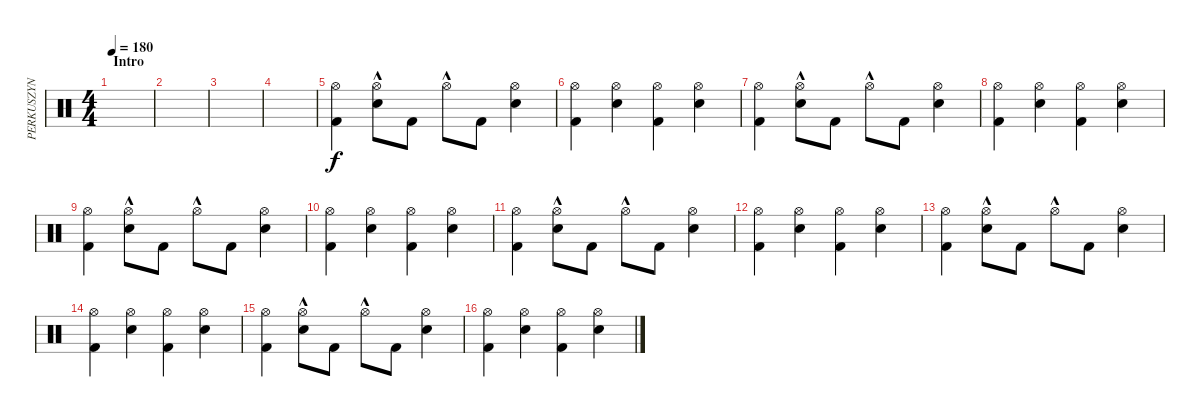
\track ("PERKUSZYN" "PERKUSZYN") {instrument percussion}
\staff {score}
\articulation defaults
\ts (4 4)
\section ("" "Intro")
\tempo 180
\clef neutral
\ks c
|
|
|
|
("Kick (hit) 2" "Hi-Hat (open)").4 ("Snare (hit) 2" "Hi-Hat (open)"{hac}).8 "Kick (hit) 2".8 "Hi-Hat (open)"{hac}.8 "Kick (hit) 2".8 ("Snare (hit) 2" "Hi-Hat (open)").4 |
("Kick (hit) 2" "Hi-Hat (open)").4 ("Snare (hit) 2" "Hi-Hat (open)").4 ("Kick (hit) 2" "Hi-Hat (open)").4 ("Snare (hit) 2" "Hi-Hat (open)").4 |
("Kick (hit) 2" "Hi-Hat (open)").4 ("Snare (hit) 2" "Hi-Hat (open)"{hac}).8 "Kick (hit) 2".8 "Hi-Hat (open)"{hac}.8 "Kick (hit) 2".8 ("Snare (hit) 2" "Hi-Hat (open)").4 |
("Kick (hit) 2" "Hi-Hat (open)").4 ("Snare (hit) 2" "Hi-Hat (open)").4 ("Kick (hit) 2" "Hi-Hat (open)").4 ("Snare (hit) 2" "Hi-Hat (open)").4 |
("Kick (hit) 2" "Hi-Hat (open)").4 ("Snare (hit) 2" "Hi-Hat (open)"{hac}).8 "Kick (hit) 2".8 "Hi-Hat (open)"{hac}.8 "Kick (hit) 2".8 ("Snare (hit) 2" "Hi-Hat (open)").4 |
("Kick (hit) 2" "Hi-Hat (open)").4 ("Snare (hit) 2" "Hi-Hat (open)").4 ("Kick (hit) 2" "Hi-Hat (open)").4 ("Snare (hit) 2" "Hi-Hat (open)").4 |
("Kick (hit) 2" "Hi-Hat (open)").4 ("Snare (hit) 2" "Hi-Hat (open)"{hac}).8 "Kick (hit) 2".8 "Hi-Hat (open)"{hac}.8 "Kick (hit) 2".8 ("Snare (hit) 2" "Hi-Hat (open)").4 |
("Kick (hit) 2" "Hi-Hat (open)").4 ("Snare (hit) 2" "Hi-Hat (open)").4 ("Kick (hit) 2" "Hi-Hat (open)").4 ("Snare (hit) 2" "Hi-Hat (open)").4 |
("Kick (hit) 2" "Hi-Hat (open)").4 ("Snare (hit) 2" "Hi-Hat (open)"{hac}).8 "Kick (hit) 2".8 "Hi-Hat (open)"{hac}.8 "Kick (hit) 2".8 ("Snare (hit) 2" "Hi-Hat (open)").4 |
("Kick (hit) 2" "Hi-Hat (open)").4 ("Snare (hit) 2" "Hi-Hat (open)").4 ("Kick (hit) 2" "Hi-Hat (open)").4 ("Snare (hit) 2" "Hi-Hat (open)").4 |
("Kick (hit) 2" "Hi-Hat (open)").4 ("Snare (hit) 2" "Hi-Hat (open)"{hac}).8 "Kick (hit) 2".8 "Hi-Hat (open)"{hac}.8 "Kick (hit) 2".8 ("Snare (hit) 2" "Hi-Hat (open)").4 |
("Kick (hit) 2" "Hi-Hat (open)").4 ("Snare (hit) 2" "Hi-Hat (open)").4 ("Kick (hit) 2" "Hi-Hat (open)").4 ("Snare (hit) 2" "Hi-Hat (open)").4
